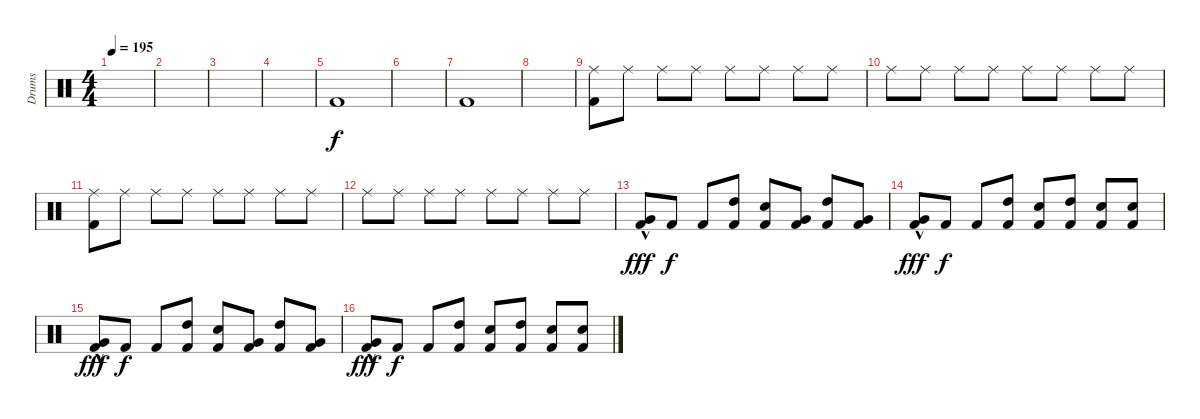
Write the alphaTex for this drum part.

\track ("Drums" "Drums") {instrument percussion}
\staff {score}
\articulation defaults
\ts (4 4)
\tempo 195
\clef neutral
\ks c
|
|
|
|
"Kick (hit) 2".1 |
|
"Kick (hit) 2".1 |
|
("Ride (middle)" "Kick (hit) 2").8 "Ride (middle)".8 "Ride (middle)".8 "Ride (middle)".8 "Ride (middle)".8 "Ride (middle)".8 "Ride (middle)".8 "Ride (middle)".8 |
"Ride (middle)".8 "Ride (middle)".8 "Ride (middle)".8 "Ride (middle)".8 "Ride (middle)".8 "Ride (middle)".8 "Ride (middle)".8 "Ride (middle)".8 |
("Ride (middle)" "Kick (hit) 2").8 "Ride (middle)".8 "Ride (middle)".8 "Ride (middle)".8 "Ride (middle)".8 "Ride (middle)".8 "Ride (middle)".8 "Ride (middle)".8 |
"Ride (middle)".8 "Ride (middle)".8 "Ride (middle)".8 "Ride (middle)".8 "Ride (middle)".8 "Ride (middle)".8 "Ride (middle)".8 "Ride (middle)".8 |
("Very Low Tom (hit)"{hac} "Kick (hit) 2").8{dy fff} "Kick (hit) 2".8{dy f} "Kick (hit) 2".8 ("High Tom (hit)" "Kick (hit) 2").8 ("Electric Snare (hit)" "Kick (hit) 2").8 ("Very Low Tom (hit)" "Kick (hit) 2").8 ("High Tom (hit)" "Kick (hit) 2").8 ("Very Low Tom (hit)" "Kick (hit) 2").8 |
("Very Low Tom (hit)"{hac} "Kick (hit) 2").8{dy fff} "Kick (hit) 2".8{dy f} "Kick (hit) 2".8 ("High Tom (hit)" "Kick (hit) 2").8 ("Electric Snare (hit)" "Kick (hit) 2").8 ("High Tom (hit)" "Kick (hit) 2").8 ("Electric Snare (hit)" "Kick (hit) 2").8 ("Electric Snare (hit)" "Kick (hit) 2").8 |
("Very Low Tom (hit)"{hac} "Kick (hit) 2").8{dy fff} "Kick (hit) 2".8{dy f} "Kick (hit) 2".8 ("High Tom (hit)" "Kick (hit) 2").8 ("Electric Snare (hit)" "Kick (hit) 2").8 ("Very Low Tom (hit)" "Kick (hit) 2").8 ("High Tom (hit)" "Kick (hit) 2").8 ("Very Low Tom (hit)" "Kick (hit) 2").8 |
("Very Low Tom (hit)"{hac} "Kick (hit) 2").8{dy fff} "Kick (hit) 2".8{dy f} "Kick (hit) 2".8 ("High Tom (hit)" "Kick (hit) 2").8 ("Electric Snare (hit)" "Kick (hit) 2").8 ("High Tom (hit)" "Kick (hit) 2").8 ("Electric Snare (hit)" "Kick (hit) 2").8 ("Electric Snare (hit)" "Kick (hit) 2").8
